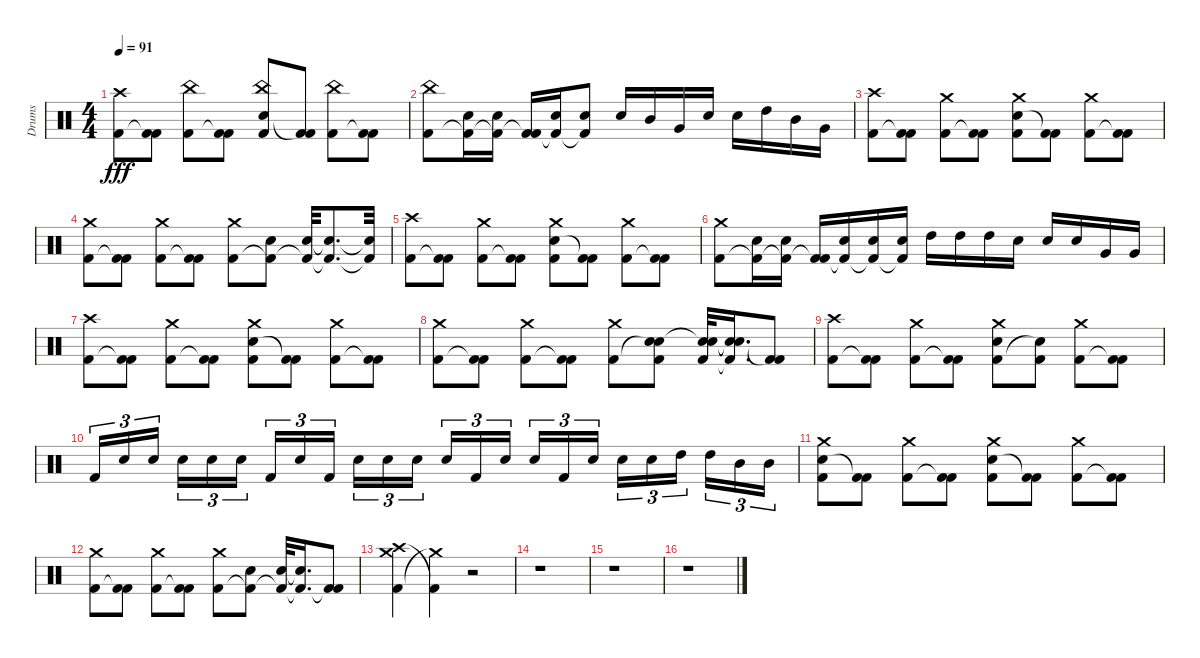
\track ("Drums" "Drums") {instrument percussion}
\staff {score}
\articulation defaults
\ts (4 4)
\tempo 91
\clef neutral
\ks c
("Kick (hit) 2" "Crash high (hit)").8{dy fff} ("Kick (hit) 2"{t} "Kick (hit) 2").8 ("Kick (hit) 2" "China (hit)").8 ("Kick (hit) 2"{t} "Kick (hit) 2").8 ("Snare (hit) 2" "Kick (hit) 2" "China (hit)").8 ("Kick (hit) 2"{t} "Kick (hit) 2").8 ("Kick (hit) 2" "China (hit)").8 ("Kick (hit) 2"{t} "Kick (hit) 2").8 |
("Kick (hit) 2" "China (hit)").8 ("Kick (hit) 2"{t} "Snare (hit) 2").16 ("Kick (hit) 2"{t} "Snare (hit) 2").16 ("Kick (hit) 2"{t} "Kick (hit) 2").16 ("Kick (hit) 2"{t} "Snare (hit) 2").16 ("Kick (hit) 2"{t} "Snare (hit) 2").8 "Snare (hit) 2".16 "Mid Tom (hit)".16 "Very Low Tom (hit)".16 "Snare (hit) 2".16 "Snare (hit) 2".16 "High Tom (hit)".16 "Mid Tom (hit)".16 "Very Low Tom (hit)".16 |
("Kick (hit) 2" "Crash high (hit)").8 ("Kick (hit) 2"{t} "Kick (hit) 2").8 ("Kick (hit) 2" "Crash medium (hit)").8 ("Kick (hit) 2"{t} "Kick (hit) 2").8 ("Snare (hit) 2" "Kick (hit) 2" "Crash medium (hit)").8 ("Kick (hit) 2"{t} "Kick (hit) 2").8 ("Kick (hit) 2" "Crash medium (hit)").8 ("Kick (hit) 2"{t} "Kick (hit) 2").8 |
("Kick (hit) 2" "Crash medium (hit)").8 ("Kick (hit) 2"{t} "Kick (hit) 2").8 ("Kick (hit) 2" "Crash medium (hit)").8 ("Kick (hit) 2"{t} "Kick (hit) 2").8 ("Kick (hit) 2" "Crash medium (hit)").8 ("Kick (hit) 2"{t} "Snare (hit) 2").8 ("Kick (hit) 2"{t} "Snare (hit) 2").32 ("Kick (hit) 2"{t} "Snare (hit) 2"{t}).8{d} ("Kick (hit) 2"{t} "Snare (hit) 2"{t}).32 |
("Kick (hit) 2" "Crash high (hit)").8 ("Kick (hit) 2"{t} "Kick (hit) 2").8 ("Kick (hit) 2" "Crash medium (hit)").8 ("Kick (hit) 2"{t} "Kick (hit) 2").8 ("Snare (hit) 2" "Kick (hit) 2" "Crash medium (hit)").8 ("Kick (hit) 2"{t} "Kick (hit) 2").8 ("Kick (hit) 2" "Crash medium (hit)").8 ("Kick (hit) 2"{t} "Kick (hit) 2").8 |
("Kick (hit) 2" "Crash medium (hit)").8 ("Kick (hit) 2"{t} "Snare (hit) 2").16 ("Kick (hit) 2"{t} "Snare (hit) 2").16 ("Kick (hit) 2"{t} "Kick (hit) 2").16 ("Kick (hit) 2"{t} "Snare (hit) 2").16 ("Kick (hit) 2"{t} "Snare (hit) 2").16 ("Kick (hit) 2"{t} "Snare (hit) 2").16 "High Tom (hit)".16 "High Tom (hit)".16 "High Tom (hit)".16 "Snare (hit) 2".16 "Snare (hit) 2".16 "Snare (hit) 2".16 "Very Low Tom (hit)".16 "Very Low Tom (hit)".16 |
("Kick (hit) 2" "Crash high (hit)").8 ("Kick (hit) 2"{t} "Kick (hit) 2").8 ("Kick (hit) 2" "Crash medium (hit)").8 ("Kick (hit) 2"{t} "Kick (hit) 2").8 ("Snare (hit) 2" "Kick (hit) 2" "Crash medium (hit)").8 ("Kick (hit) 2"{t} "Kick (hit) 2").8 ("Kick (hit) 2" "Crash medium (hit)").8 ("Kick (hit) 2"{t} "Kick (hit) 2").8 |
("Kick (hit) 2" "Crash medium (hit)").8 ("Kick (hit) 2"{t} "Kick (hit) 2").8 ("Kick (hit) 2" "Crash medium (hit)").8 ("Kick (hit) 2"{t} "Kick (hit) 2").8 ("Kick (hit) 2" "Crash medium (hit)").8 ("Snare (hit) 2"{t} "Snare (hit) 2" "Kick (hit) 2").8 ("Snare (hit) 2"{t} "Kick (hit) 2" "Snare (hit) 2").32 ("Snare (hit) 2"{t} "Kick (hit) 2"{t} "Snare (hit) 2"{t}).16{d} ("Kick (hit) 2"{t} "Kick (hit) 2").8 |
("Kick (hit) 2" "Crash high (hit)").8 ("Kick (hit) 2"{t} "Kick (hit) 2").8 ("Kick (hit) 2" "Crash medium (hit)").8 ("Kick (hit) 2"{t} "Kick (hit) 2").8 ("Kick (hit) 2" "Snare (hit) 2" "Crash medium (hit)").8 ("Snare (hit) 2"{t} "Kick (hit) 2").8 ("Kick (hit) 2" "Crash medium (hit)").8 ("Kick (hit) 2"{t} "Kick (hit) 2").8 |
"Kick (hit) 2".16{tu (3 2)} "Snare (hit) 2".16{tu (3 2)} "Snare (hit) 2".16{tu (3 2)} "Snare (hit) 2".16{tu (3 2)} "Snare (hit) 2".16{tu (3 2)} "Snare (hit) 2".16{tu (3 2)} "Kick (hit) 2".16{tu (3 2)} "Snare (hit) 2".16{tu (3 2)} "Kick (hit) 2".16{tu (3 2)} "Snare (hit) 2".16{tu (3 2)} "Snare (hit) 2".16{tu (3 2)} "Snare (hit) 2".16{tu (3 2)} "Snare (hit) 2".16{tu (3 2)} "Kick (hit) 2".16{tu (3 2)} "Snare (hit) 2".16{tu (3 2)} "Snare (hit) 2".16{tu (3 2)} "Kick (hit) 2".16{tu (3 2)} "Snare (hit) 2".16{tu (3 2)} "Snare (hit) 2".16{tu (3 2)} "Snare (hit) 2".16{tu (3 2)} "High Tom (hit)".16{tu (3 2)} "High Tom (hit)".16{tu (3 2)} "Mid Tom (hit)".16{tu (3 2)} "Mid Tom (hit)".16{tu (3 2)} |
("Snare (hit) 2" "Kick (hit) 2" "Crash medium (hit)").8 ("Kick (hit) 2"{t} "Kick (hit) 2").8 ("Kick (hit) 2" "Crash medium (hit)").8 ("Kick (hit) 2"{t} "Kick (hit) 2").8 ("Snare (hit) 2" "Kick (hit) 2" "Crash medium (hit)").8 ("Kick (hit) 2"{t} "Kick (hit) 2").8 ("Kick (hit) 2" "Crash medium (hit)").8 ("Kick (hit) 2"{t} "Kick (hit) 2").8 |
("Kick (hit) 2" "Crash medium (hit)").8 ("Kick (hit) 2"{t} "Kick (hit) 2").8 ("Kick (hit) 2" "Crash medium (hit)").8 ("Kick (hit) 2"{t} "Kick (hit) 2").8 ("Kick (hit) 2" "Crash medium (hit)").8 ("Kick (hit) 2"{t} "Snare (hit) 2").8 ("Kick (hit) 2"{t} "Snare (hit) 2").32 ("Kick (hit) 2"{t} "Snare (hit) 2"{t}).16{d} ("Kick (hit) 2"{t} "Kick (hit) 2").8 |
("Crash high (hit)" "Kick (hit) 2" "Crash medium (hit)").4 ("Kick (hit) 2"{t} "Crash medium (hit)"{t}).4 r.2 |
r.1 |
r.1 |
r.1
